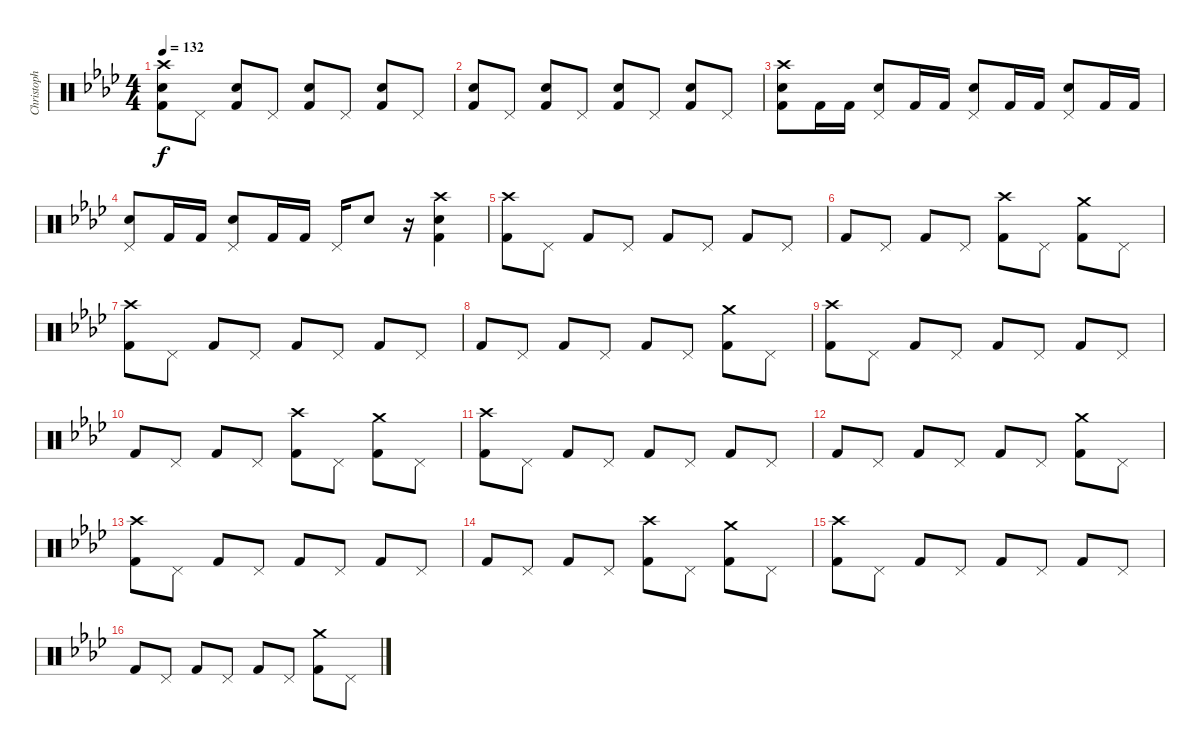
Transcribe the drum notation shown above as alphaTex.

\track ("Christoph Doom Schneider - Drums" "Christoph ") {instrument percussion}
\staff {score}
\articulation defaults
\ts (4 4)
\tempo 132
\clef neutral
\ks fminor
("Crash high (hit)" "Snare (hit) 2" "Kick (hit) 2").8{dy f} "Pedal Hi-Hat (hit)".8 ("Snare (hit) 2" "Kick (hit) 2").8 "Pedal Hi-Hat (hit)".8 ("Snare (hit) 2" "Kick (hit) 2").8 "Pedal Hi-Hat (hit)".8 ("Snare (hit) 2" "Kick (hit) 2").8 "Pedal Hi-Hat (hit)".8 |
("Snare (hit) 2" "Kick (hit) 2").8 "Pedal Hi-Hat (hit)".8 ("Snare (hit) 2" "Kick (hit) 2").8 "Pedal Hi-Hat (hit)".8 ("Snare (hit) 2" "Kick (hit) 2").8 "Pedal Hi-Hat (hit)".8 ("Snare (hit) 2" "Kick (hit) 2").8 "Pedal Hi-Hat (hit)".8 |
("Crash high (hit)" "Snare (hit) 2" "Kick (hit) 2").8 "Kick (hit) 2".16 "Kick (hit) 2".16 ("Pedal Hi-Hat (hit)" "Snare (hit) 2").8 "Kick (hit) 2".16 "Kick (hit) 2".16 ("Pedal Hi-Hat (hit)" "Snare (hit) 2").8 "Kick (hit) 2".16 "Kick (hit) 2".16 ("Pedal Hi-Hat (hit)" "Snare (hit) 2").8 "Kick (hit) 2".16 "Kick (hit) 2".16 |
("Pedal Hi-Hat (hit)" "Snare (hit) 2").8 "Kick (hit) 2".16 "Kick (hit) 2".16 ("Pedal Hi-Hat (hit)" "Snare (hit) 2").8 "Kick (hit) 2".16 "Kick (hit) 2".16 "Pedal Hi-Hat (hit)".16 "Snare (hit) 2".8 r.16 ("Crash high (hit)" "Snare (hit) 2" "Kick (hit) 2").4 |
("Crash high (hit)" "Kick (hit) 2").8 "Pedal Hi-Hat (hit)".8 "Kick (hit) 2".8 "Pedal Hi-Hat (hit)".8 "Kick (hit) 2".8 "Pedal Hi-Hat (hit)".8 "Kick (hit) 2".8 "Pedal Hi-Hat (hit)".8 |
"Kick (hit) 2".8 "Pedal Hi-Hat (hit)".8 "Kick (hit) 2".8 "Pedal Hi-Hat (hit)".8 ("Crash high (hit)" "Kick (hit) 2").8 "Pedal Hi-Hat (hit)".8 ("Crash medium (hit)" "Kick (hit) 2").8 "Pedal Hi-Hat (hit)".8 |
("Crash high (hit)" "Kick (hit) 2").8 "Pedal Hi-Hat (hit)".8 "Kick (hit) 2".8 "Pedal Hi-Hat (hit)".8 "Kick (hit) 2".8 "Pedal Hi-Hat (hit)".8 "Kick (hit) 2".8 "Pedal Hi-Hat (hit)".8 |
"Kick (hit) 2".8 "Pedal Hi-Hat (hit)".8 "Kick (hit) 2".8 "Pedal Hi-Hat (hit)".8 "Kick (hit) 2".8 "Pedal Hi-Hat (hit)".8 ("Crash medium (hit)" "Kick (hit) 2").8 "Pedal Hi-Hat (hit)".8 |
("Crash high (hit)" "Kick (hit) 2").8 "Pedal Hi-Hat (hit)".8 "Kick (hit) 2".8 "Pedal Hi-Hat (hit)".8 "Kick (hit) 2".8 "Pedal Hi-Hat (hit)".8 "Kick (hit) 2".8 "Pedal Hi-Hat (hit)".8 |
"Kick (hit) 2".8 "Pedal Hi-Hat (hit)".8 "Kick (hit) 2".8 "Pedal Hi-Hat (hit)".8 ("Crash high (hit)" "Kick (hit) 2").8 "Pedal Hi-Hat (hit)".8 ("Crash medium (hit)" "Kick (hit) 2").8 "Pedal Hi-Hat (hit)".8 |
("Crash high (hit)" "Kick (hit) 2").8 "Pedal Hi-Hat (hit)".8 "Kick (hit) 2".8 "Pedal Hi-Hat (hit)".8 "Kick (hit) 2".8 "Pedal Hi-Hat (hit)".8 "Kick (hit) 2".8 "Pedal Hi-Hat (hit)".8 |
"Kick (hit) 2".8 "Pedal Hi-Hat (hit)".8 "Kick (hit) 2".8 "Pedal Hi-Hat (hit)".8 "Kick (hit) 2".8 "Pedal Hi-Hat (hit)".8 ("Crash medium (hit)" "Kick (hit) 2").8 "Pedal Hi-Hat (hit)".8 |
("Crash high (hit)" "Kick (hit) 2").8 "Pedal Hi-Hat (hit)".8 "Kick (hit) 2".8 "Pedal Hi-Hat (hit)".8 "Kick (hit) 2".8 "Pedal Hi-Hat (hit)".8 "Kick (hit) 2".8 "Pedal Hi-Hat (hit)".8 |
"Kick (hit) 2".8 "Pedal Hi-Hat (hit)".8 "Kick (hit) 2".8 "Pedal Hi-Hat (hit)".8 ("Crash high (hit)" "Kick (hit) 2").8 "Pedal Hi-Hat (hit)".8 ("Crash medium (hit)" "Kick (hit) 2").8 "Pedal Hi-Hat (hit)".8 |
("Crash high (hit)" "Kick (hit) 2").8 "Pedal Hi-Hat (hit)".8 "Kick (hit) 2".8 "Pedal Hi-Hat (hit)".8 "Kick (hit) 2".8 "Pedal Hi-Hat (hit)".8 "Kick (hit) 2".8 "Pedal Hi-Hat (hit)".8 |
"Kick (hit) 2".8 "Pedal Hi-Hat (hit)".8 "Kick (hit) 2".8 "Pedal Hi-Hat (hit)".8 "Kick (hit) 2".8 "Pedal Hi-Hat (hit)".8 ("Crash medium (hit)" "Kick (hit) 2").8 "Pedal Hi-Hat (hit)".8
